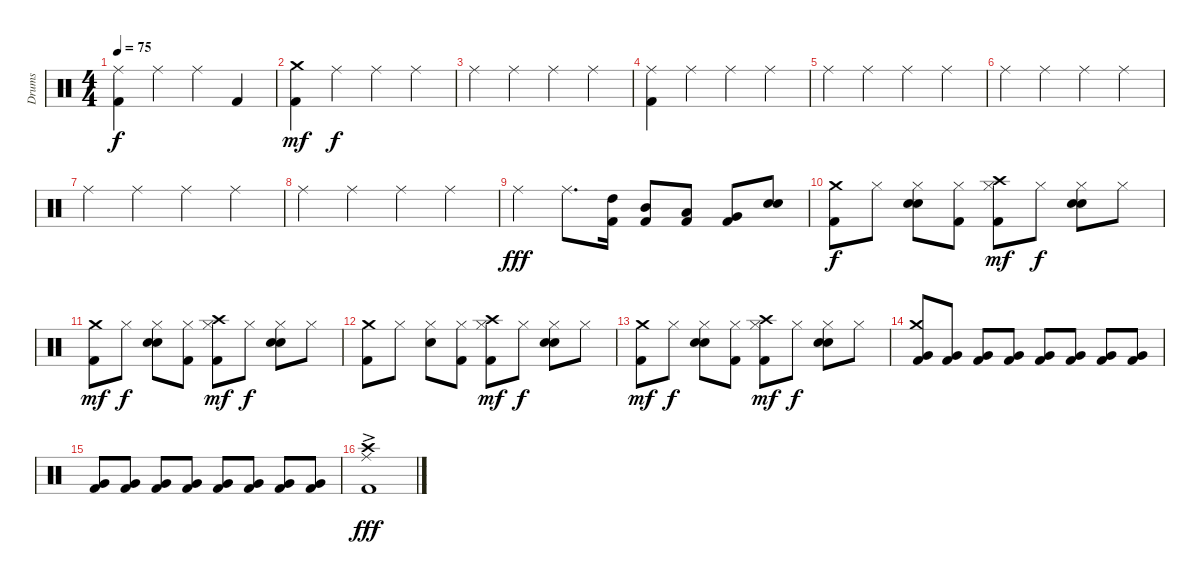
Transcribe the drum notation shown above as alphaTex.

\track ("Drums" "Drums") {instrument percussion}
\staff {score}
\articulation defaults
\ts (4 4)
\tempo 75
\clef neutral
\ks c
("Kick (hit) 2" "Ride (middle)").4{dy f} "Ride (middle)".4 "Ride (middle)".4 "Kick (hit) 2".4 |
("Kick (hit) 2" "Crash medium (hit)").4{dy mf} "Ride (middle)".4{dy f} "Ride (middle)".4 "Ride (middle)".4 |
"Ride (middle)".4 "Ride (middle)".4 "Ride (middle)".4 "Ride (middle)".4 |
("Kick (hit) 2" "Ride (middle)").4 "Ride (middle)".4 "Ride (middle)".4 "Ride (middle)".4 |
"Ride (middle)".4 "Ride (middle)".4 "Ride (middle)".4 "Ride (middle)".4 |
"Ride (middle)".4 "Ride (middle)".4 "Ride (middle)".4 "Ride (middle)".4 |
"Ride (middle)".4 "Ride (middle)".4 "Ride (middle)".4 "Ride (middle)".4 |
"Ride (middle)".4 "Ride (middle)".4 "Ride (middle)".4 "Ride (middle)".4 |
"Ride (middle)".4{dy fff} "Ride (middle)".8{d} ("High Tom (hit)" "Kick (hit) 2").16{balance 14} ("Mid Tom (hit)" "Kick (hit) 2").8{balance 11} ("Low Tom (hit)" "Kick (hit) 2").8{balance 9} ("Kick (hit) 2" "Very Low Tom (hit)").8{balance 4} ("Electric Snare (hit)" "Snare (hit) 2").8{volume 16 balance 8} |
("Crash medium (hit)" "Kick (hit) 2").8{dy f} "Hi-Hat (closed)".8 ("Snare (hit) 2" "Electric Snare (hit)" "Hi-Hat (closed)").8 ("Kick (hit) 2" "Hi-Hat (closed)").8 ("Crash high (hit)" "Kick (hit) 2" "Hi-Hat (closed)").8{dy mf} "Hi-Hat (closed)".8{dy f} ("Snare (hit) 2" "Electric Snare (hit)" "Hi-Hat (closed)").8 "Hi-Hat (closed)".8 |
("Crash medium (hit)" "Kick (hit) 2").8{dy mf} "Hi-Hat (closed)".8{dy f} ("Snare (hit) 2" "Electric Snare (hit)" "Hi-Hat (closed)").8 ("Kick (hit) 2" "Hi-Hat (closed)").8 ("Crash high (hit)" "Kick (hit) 2" "Hi-Hat (closed)").8{dy mf} "Hi-Hat (closed)".8{dy f} ("Snare (hit) 2" "Electric Snare (hit)" "Hi-Hat (closed)").8 "Hi-Hat (closed)".8 |
("Crash medium (hit)" "Kick (hit) 2").8 "Hi-Hat (closed)".8 ("Snare (hit) 2" "Hi-Hat (closed)").8 ("Kick (hit) 2" "Hi-Hat (closed)").8 ("Crash high (hit)" "Kick (hit) 2" "Hi-Hat (closed)").8{dy mf} "Hi-Hat (closed)".8{dy f} ("Snare (hit) 2" "Electric Snare (hit)" "Hi-Hat (closed)").8 "Hi-Hat (closed)".8 |
("Crash medium (hit)" "Kick (hit) 2").8{dy mf} "Hi-Hat (closed)".8{dy f} ("Snare (hit) 2" "Electric Snare (hit)" "Hi-Hat (closed)").8 ("Kick (hit) 2" "Hi-Hat (closed)").8 ("Crash high (hit)" "Kick (hit) 2" "Hi-Hat (closed)").8{dy mf} "Hi-Hat (closed)".8{dy f} ("Snare (hit) 2" "Electric Snare (hit)" "Hi-Hat (closed)").8 "Hi-Hat (closed)".8 |
("Crash medium (hit)" "Very Low Tom (hit)" "Kick (hit) 2").8 ("Very Low Tom (hit)" "Kick (hit) 2").8 ("Very Low Tom (hit)" "Kick (hit) 2").8 ("Very Low Tom (hit)" "Kick (hit) 2").8 ("Very Low Tom (hit)" "Kick (hit) 2").8 ("Very Low Tom (hit)" "Kick (hit) 2").8 ("Very Low Tom (hit)" "Kick (hit) 2").8 ("Very Low Tom (hit)" "Kick (hit) 2").8 |
("Very Low Tom (hit)" "Kick (hit) 2").8 ("Very Low Tom (hit)" "Kick (hit) 2").8 ("Very Low Tom (hit)" "Kick (hit) 2").8 ("Very Low Tom (hit)" "Kick (hit) 2").8 ("Very Low Tom (hit)" "Kick (hit) 2").8 ("Very Low Tom (hit)" "Kick (hit) 2").8 ("Very Low Tom (hit)" "Kick (hit) 2").8 ("Very Low Tom (hit)" "Kick (hit) 2").8 |
("Crash high (hit)"{ac} "Kick (hit) 2" "Ride (middle)").1{dy fff}
